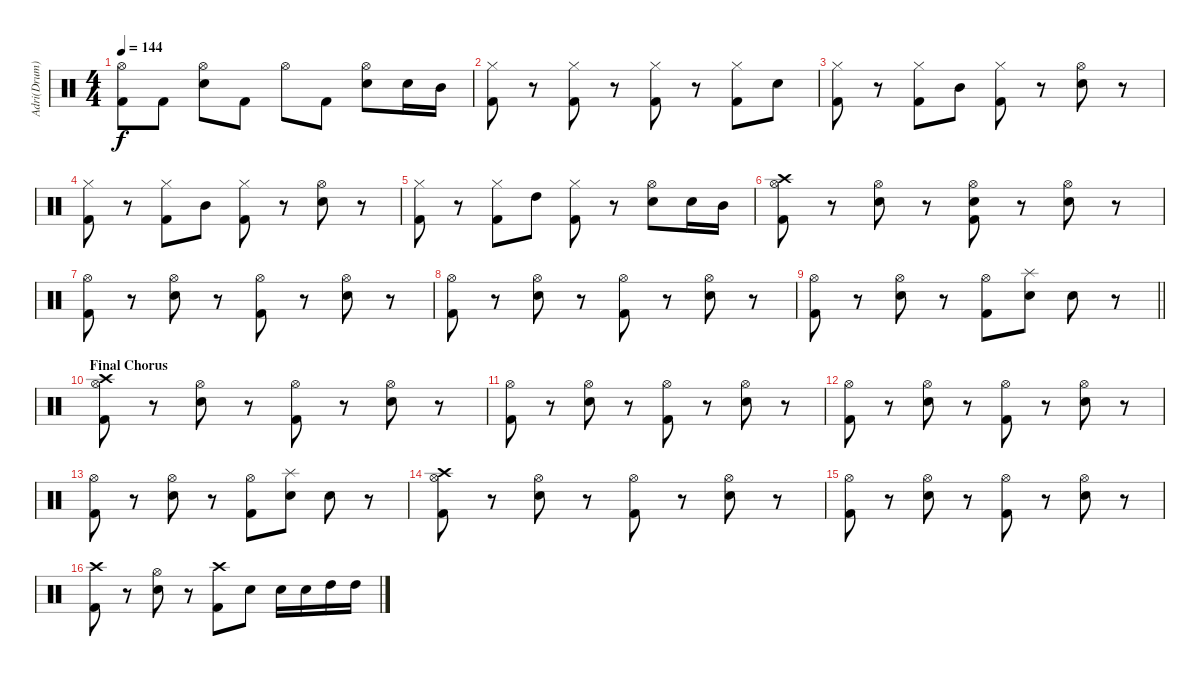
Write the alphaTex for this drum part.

\track ("Adri(Drum)" "Adri(Drum)") {instrument percussion}
\staff {score}
\articulation defaults
\ts (4 4)
\tempo 144
\clef neutral
\ks c
("Hi-Hat (open)" "Kick (hit) 2").8{dy f} "Kick (hit) 2".8 ("Hi-Hat (open)" "Electric Snare (hit)").8 "Kick (hit) 2".8 "Hi-Hat (open)".8 "Kick (hit) 2".8 ("Hi-Hat (open)" "Electric Snare (hit)").8 "Electric Snare (hit)".16 "Mid Tom (hit)".16 |
("Hi-Hat (closed)" "Kick (hit) 2").8 r.8 ("Hi-Hat (closed)" "Kick (hit) 2").8 r.8 ("Hi-Hat (closed)" "Kick (hit) 2").8 r.8 ("Hi-Hat (closed)" "Kick (hit) 2").8 "Electric Snare (hit)".8 |
("Hi-Hat (closed)" "Kick (hit) 2").8 r.8 ("Hi-Hat (closed)" "Kick (hit) 2").8 "Mid Tom (hit)".8 ("Hi-Hat (closed)" "Kick (hit) 2").8 r.8 ("Hi-Hat (open)" "Electric Snare (hit)").8 r.8 |
("Hi-Hat (closed)" "Kick (hit) 2").8 r.8 ("Hi-Hat (closed)" "Kick (hit) 2").8 "Mid Tom (hit)".8 ("Hi-Hat (closed)" "Kick (hit) 2").8 r.8 ("Hi-Hat (open)" "Electric Snare (hit)").8 r.8 |
("Hi-Hat (closed)" "Kick (hit) 2").8 r.8 ("Hi-Hat (closed)" "Kick (hit) 2").8 "High Tom (hit)".8 ("Hi-Hat (closed)" "Kick (hit) 2").8 r.8 ("Hi-Hat (open)" "Electric Snare (hit)").8 "Electric Snare (hit)".16 "Mid Tom (hit)".16 |
("Crash high (hit)" "Hi-Hat (open)" "Kick (hit) 2").8 r.8 ("Hi-Hat (open)" "Electric Snare (hit)").8 r.8 ("Snare (hit) 2" "Hi-Hat (open)" "Kick (hit) 2").8 r.8 ("Hi-Hat (open)" "Electric Snare (hit)").8 r.8 |
("Hi-Hat (open)" "Kick (hit) 2").8 r.8 ("Hi-Hat (open)" "Electric Snare (hit)").8 r.8 ("Hi-Hat (open)" "Kick (hit) 2").8 r.8 ("Hi-Hat (open)" "Electric Snare (hit)").8 r.8 |
("Hi-Hat (open)" "Kick (hit) 2").8 r.8 ("Hi-Hat (open)" "Electric Snare (hit)").8 r.8 ("Hi-Hat (open)" "Kick (hit) 2").8 r.8 ("Hi-Hat (open)" "Electric Snare (hit)").8 r.8 |
\barLineRight lightlight
("Hi-Hat (open)" "Kick (hit) 2").8 r.8 ("Hi-Hat (open)" "Electric Snare (hit)").8 r.8 ("Hi-Hat (open)" "Kick (hit) 2").8 ("Splash (hit)" "Electric Snare (hit)").8 "Electric Snare (hit)".8 r.8 |
\section ("" "Final Chorus")
("Crash high (hit)" "Hi-Hat (open)" "Kick (hit) 2").8 r.8 ("Hi-Hat (open)" "Electric Snare (hit)").8 r.8 ("Hi-Hat (open)" "Kick (hit) 2").8 r.8 ("Hi-Hat (open)" "Electric Snare (hit)").8 r.8 |
("Hi-Hat (open)" "Kick (hit) 2").8 r.8 ("Hi-Hat (open)" "Electric Snare (hit)").8 r.8 ("Hi-Hat (open)" "Kick (hit) 2").8 r.8 ("Hi-Hat (open)" "Electric Snare (hit)").8 r.8 |
("Hi-Hat (open)" "Kick (hit) 2").8 r.8 ("Hi-Hat (open)" "Electric Snare (hit)").8 r.8 ("Hi-Hat (open)" "Kick (hit) 2").8 r.8 ("Hi-Hat (open)" "Electric Snare (hit)").8 r.8 |
("Hi-Hat (open)" "Kick (hit) 2").8 r.8 ("Hi-Hat (open)" "Electric Snare (hit)").8 r.8 ("Hi-Hat (open)" "Kick (hit) 2").8 ("Splash (hit)" "Electric Snare (hit)").8 "Electric Snare (hit)".8 r.8 |
("Crash high (hit)" "Hi-Hat (open)" "Kick (hit) 2").8 r.8 ("Hi-Hat (open)" "Electric Snare (hit)").8 r.8 ("Hi-Hat (open)" "Kick (hit) 2").8 r.8 ("Hi-Hat (open)" "Electric Snare (hit)").8 r.8 |
("Hi-Hat (open)" "Kick (hit) 2").8 r.8 ("Hi-Hat (open)" "Electric Snare (hit)").8 r.8 ("Hi-Hat (open)" "Kick (hit) 2").8 r.8 ("Hi-Hat (open)" "Electric Snare (hit)").8 r.8 |
("Crash high (hit)" "Kick (hit) 2").8 r.8 ("Hi-Hat (open)" "Electric Snare (hit)").8 r.8 ("Crash high (hit)" "Kick (hit) 2").8 "Electric Snare (hit)".8 "Electric Snare (hit)".16 "Electric Snare (hit)".16 "High Tom (hit)".16 "High Tom (hit)".16
